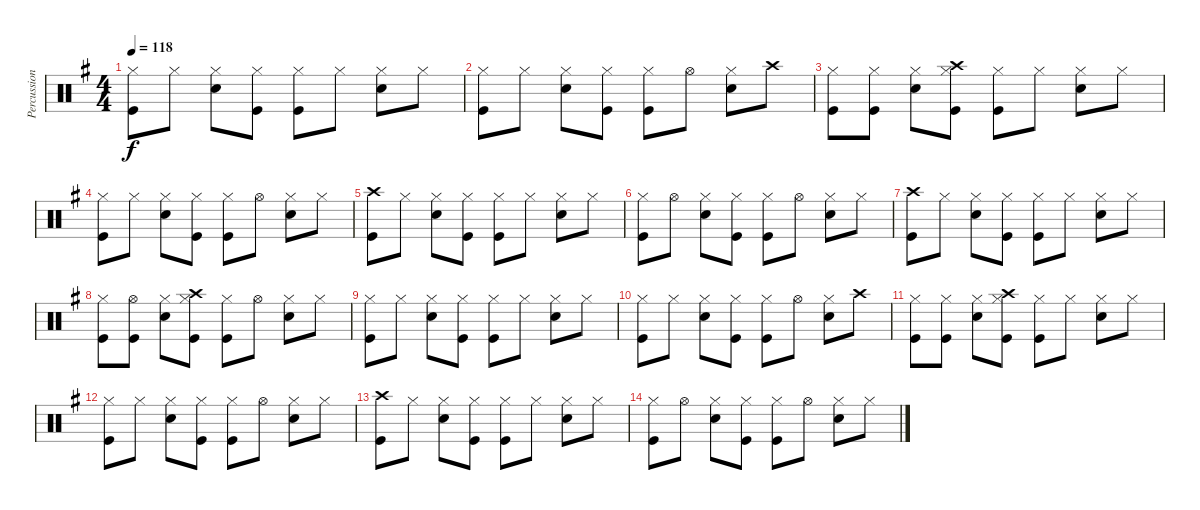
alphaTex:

\track ("Percussion" "Percussion") {instrument percussion}
\staff {score}
\articulation defaults
\ts (4 4)
\tempo 118
\clef neutral
\ks g
("Hi-Hat (closed)" "Kick (hit)").8{dy f} "Hi-Hat (closed)".8 ("Hi-Hat (closed)" "Electric Snare (hit)").8 ("Hi-Hat (closed)" "Kick (hit)").8 ("Hi-Hat (closed)" "Kick (hit)").8 "Hi-Hat (closed)".8 ("Hi-Hat (closed)" "Electric Snare (hit)").8 "Hi-Hat (closed)".8 |
("Hi-Hat (closed)" "Kick (hit)").8 "Hi-Hat (closed)".8 ("Hi-Hat (closed)" "Electric Snare (hit)").8 ("Hi-Hat (closed)" "Kick (hit)").8 ("Hi-Hat (closed)" "Kick (hit)").8 "Hi-Hat (open)".8 ("Hi-Hat (closed)" "Electric Snare (hit)").8 "Crash high (hit)".8 |
("Hi-Hat (closed)" "Kick (hit)").8 ("Hi-Hat (closed)" "Kick (hit)").8 ("Hi-Hat (closed)" "Electric Snare (hit)").8 ("Hi-Hat (closed)" "Crash high (hit)" "Kick (hit)").8 ("Hi-Hat (closed)" "Kick (hit)").8 "Hi-Hat (closed)".8 ("Hi-Hat (closed)" "Electric Snare (hit)").8 "Hi-Hat (closed)".8 |
("Hi-Hat (closed)" "Kick (hit)").8 "Hi-Hat (closed)".8 ("Hi-Hat (closed)" "Electric Snare (hit)").8 ("Hi-Hat (closed)" "Kick (hit)").8 ("Hi-Hat (closed)" "Kick (hit)").8 "Hi-Hat (open)".8 ("Hi-Hat (closed)" "Electric Snare (hit)").8 "Hi-Hat (closed)".8 |
("Crash high (hit)" "Kick (hit)").8 "Hi-Hat (closed)".8 ("Hi-Hat (closed)" "Electric Snare (hit)").8 ("Hi-Hat (closed)" "Kick (hit)").8 ("Hi-Hat (closed)" "Kick (hit)").8 "Hi-Hat (closed)".8 ("Hi-Hat (closed)" "Electric Snare (hit)").8 "Hi-Hat (closed)".8 |
("Hi-Hat (closed)" "Kick (hit)").8 "Hi-Hat (open)".8 ("Hi-Hat (closed)" "Electric Snare (hit)").8 ("Hi-Hat (closed)" "Kick (hit)").8 ("Hi-Hat (closed)" "Kick (hit)").8 "Hi-Hat (open)".8 ("Hi-Hat (closed)" "Electric Snare (hit)").8 "Hi-Hat (closed)".8 |
("Crash high (hit)" "Kick (hit)").8 "Hi-Hat (closed)".8 ("Hi-Hat (closed)" "Electric Snare (hit)").8 ("Hi-Hat (closed)" "Kick (hit)").8 ("Hi-Hat (closed)" "Kick (hit)").8 "Hi-Hat (closed)".8 ("Hi-Hat (closed)" "Electric Snare (hit)").8 "Hi-Hat (closed)".8 |
("Hi-Hat (closed)" "Kick (hit)").8 ("Hi-Hat (open)" "Kick (hit)").8 ("Hi-Hat (closed)" "Electric Snare (hit)").8 ("Hi-Hat (closed)" "Crash high (hit)" "Kick (hit)").8 ("Hi-Hat (closed)" "Kick (hit)").8 "Hi-Hat (open)".8 ("Hi-Hat (closed)" "Electric Snare (hit)").8 "Hi-Hat (closed)".8 |
("Hi-Hat (closed)" "Kick (hit)").8 "Hi-Hat (closed)".8 ("Hi-Hat (closed)" "Electric Snare (hit)").8 ("Hi-Hat (closed)" "Kick (hit)").8 ("Hi-Hat (closed)" "Kick (hit)").8 "Hi-Hat (closed)".8 ("Hi-Hat (closed)" "Electric Snare (hit)").8 "Hi-Hat (closed)".8 |
("Hi-Hat (closed)" "Kick (hit)").8 "Hi-Hat (closed)".8 ("Hi-Hat (closed)" "Electric Snare (hit)").8 ("Hi-Hat (closed)" "Kick (hit)").8 ("Hi-Hat (closed)" "Kick (hit)").8 "Hi-Hat (open)".8 ("Hi-Hat (closed)" "Electric Snare (hit)").8 "Crash high (hit)".8 |
("Hi-Hat (closed)" "Kick (hit)").8 ("Hi-Hat (closed)" "Kick (hit)").8 ("Hi-Hat (closed)" "Electric Snare (hit)").8 ("Hi-Hat (closed)" "Crash high (hit)" "Kick (hit)").8 ("Hi-Hat (closed)" "Kick (hit)").8 "Hi-Hat (closed)".8 ("Hi-Hat (closed)" "Electric Snare (hit)").8 "Hi-Hat (closed)".8 |
("Hi-Hat (closed)" "Kick (hit)").8 "Hi-Hat (closed)".8 ("Hi-Hat (closed)" "Electric Snare (hit)").8 ("Hi-Hat (closed)" "Kick (hit)").8 ("Hi-Hat (closed)" "Kick (hit)").8 "Hi-Hat (open)".8 ("Hi-Hat (closed)" "Electric Snare (hit)").8 "Hi-Hat (closed)".8 |
("Crash high (hit)" "Kick (hit)").8 "Hi-Hat (closed)".8 ("Hi-Hat (closed)" "Electric Snare (hit)").8 ("Hi-Hat (closed)" "Kick (hit)").8 ("Hi-Hat (closed)" "Kick (hit)").8 "Hi-Hat (closed)".8 ("Hi-Hat (closed)" "Electric Snare (hit)").8 "Hi-Hat (closed)".8 |
("Hi-Hat (closed)" "Kick (hit)").8 "Hi-Hat (open)".8 ("Hi-Hat (closed)" "Electric Snare (hit)").8 ("Hi-Hat (closed)" "Kick (hit)").8 ("Hi-Hat (closed)" "Kick (hit)").8 "Hi-Hat (open)".8 ("Hi-Hat (closed)" "Electric Snare (hit)").8 "Hi-Hat (closed)".8
